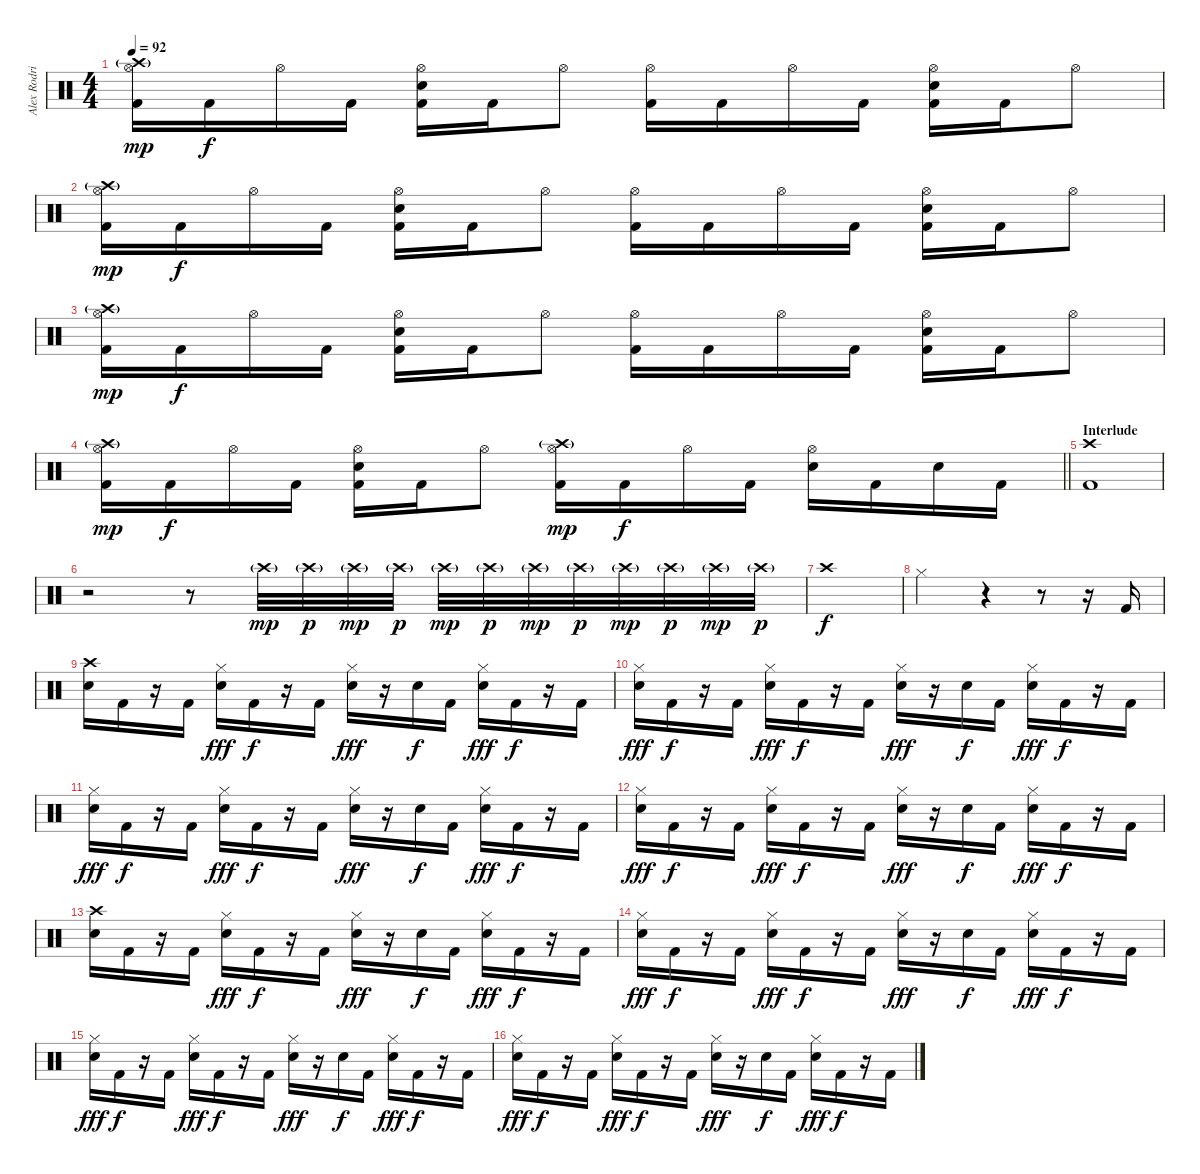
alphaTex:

\track ("Alex Rodriguez" "Alex Rodri") {instrument percussion}
\staff {score}
\articulation defaults
\ts (4 4)
\tempo 92
\clef neutral
\ks c
("Crash high (hit)"{g} "Hi-Hat (open)" "Kick (hit) 2").16{dy mp} "Kick (hit) 2".16{dy f} "Hi-Hat (open)".16 "Kick (hit) 2".16 ("Hi-Hat (open)" "Electric Snare (hit)" "Kick (hit) 2").16 "Kick (hit) 2".16 "Hi-Hat (open)".8 ("Hi-Hat (open)" "Kick (hit) 2").16 "Kick (hit) 2".16 "Hi-Hat (open)".16 "Kick (hit) 2".16 ("Hi-Hat (open)" "Electric Snare (hit)" "Kick (hit) 2").16 "Kick (hit) 2".16 "Hi-Hat (open)".8 |
("Crash high (hit)"{g} "Hi-Hat (open)" "Kick (hit) 2").16{dy mp} "Kick (hit) 2".16{dy f} "Hi-Hat (open)".16 "Kick (hit) 2".16 ("Hi-Hat (open)" "Electric Snare (hit)" "Kick (hit) 2").16 "Kick (hit) 2".16 "Hi-Hat (open)".8 ("Hi-Hat (open)" "Kick (hit) 2").16 "Kick (hit) 2".16 "Hi-Hat (open)".16 "Kick (hit) 2".16 ("Hi-Hat (open)" "Electric Snare (hit)" "Kick (hit) 2").16 "Kick (hit) 2".16 "Hi-Hat (open)".8 |
("Crash high (hit)"{g} "Hi-Hat (open)" "Kick (hit) 2").16{dy mp} "Kick (hit) 2".16{dy f} "Hi-Hat (open)".16 "Kick (hit) 2".16 ("Hi-Hat (open)" "Electric Snare (hit)" "Kick (hit) 2").16 "Kick (hit) 2".16 "Hi-Hat (open)".8 ("Hi-Hat (open)" "Kick (hit) 2").16 "Kick (hit) 2".16 "Hi-Hat (open)".16 "Kick (hit) 2".16 ("Hi-Hat (open)" "Electric Snare (hit)" "Kick (hit) 2").16 "Kick (hit) 2".16 "Hi-Hat (open)".8 |
\barLineRight lightlight
("Crash high (hit)"{g} "Hi-Hat (open)" "Kick (hit) 2").16{dy mp} "Kick (hit) 2".16{dy f} "Hi-Hat (open)".16 "Kick (hit) 2".16 ("Hi-Hat (open)" "Electric Snare (hit)" "Kick (hit) 2").16 "Kick (hit) 2".16 "Hi-Hat (open)".8 ("Crash high (hit)"{g} "Hi-Hat (open)" "Kick (hit) 2").16{dy mp} "Kick (hit) 2".16{dy f} "Hi-Hat (open)".16 "Kick (hit) 2".16 ("Hi-Hat (open)" "Electric Snare (hit)").16 "Kick (hit) 2".16 "Electric Snare (hit)".16 "Kick (hit) 2".16 |
\section ("" "Interlude")
("Crash high (hit)" "Kick (hit) 2").1 |
r.2 r.8 "Crash high (hit)"{g}.32{dy mp} "Crash high (hit)"{g}.32{dy p} "Crash high (hit)"{g}.32{dy mp} "Crash high (hit)"{g}.32{dy p} "Crash high (hit)"{g}.32{dy mp} "Crash high (hit)"{g}.32{dy p} "Crash high (hit)"{g}.32{dy mp} "Crash high (hit)"{g}.32{dy p} "Crash high (hit)"{g}.32{dy mp} "Crash high (hit)"{g}.32{dy p} "Crash high (hit)"{g}.32{dy mp} "Crash high (hit)"{g}.32{dy p} |
"Crash high (hit)".1{dy f} |
"Hi-Hat (closed)".2 r.4 r.8 r.16 "Kick (hit) 2".16 |
("Crash high (hit)" "Electric Snare (hit)").16 "Kick (hit) 2".16 r.16 "Kick (hit) 2".16 ("Hi-Hat (closed)" "Electric Snare (hit)").16{dy fff} "Kick (hit) 2".16{dy f} r.16 "Kick (hit) 2".16 ("Hi-Hat (closed)" "Electric Snare (hit)").16{dy fff} r.16 "Electric Snare (hit)".16{dy f} "Kick (hit) 2".16 ("Hi-Hat (closed)" "Electric Snare (hit)").16{dy fff} "Kick (hit) 2".16{dy f} r.16 "Kick (hit) 2".16 |
("Hi-Hat (closed)" "Electric Snare (hit)").16{dy fff} "Kick (hit) 2".16{dy f} r.16 "Kick (hit) 2".16 ("Hi-Hat (closed)" "Electric Snare (hit)").16{dy fff} "Kick (hit) 2".16{dy f} r.16 "Kick (hit) 2".16 ("Hi-Hat (closed)" "Electric Snare (hit)").16{dy fff} r.16 "Electric Snare (hit)".16{dy f} "Kick (hit) 2".16 ("Hi-Hat (closed)" "Electric Snare (hit)").16{dy fff} "Kick (hit) 2".16{dy f} r.16 "Kick (hit) 2".16 |
("Hi-Hat (closed)" "Electric Snare (hit)").16{dy fff} "Kick (hit) 2".16{dy f} r.16 "Kick (hit) 2".16 ("Hi-Hat (closed)" "Electric Snare (hit)").16{dy fff} "Kick (hit) 2".16{dy f} r.16 "Kick (hit) 2".16 ("Hi-Hat (closed)" "Electric Snare (hit)").16{dy fff} r.16 "Electric Snare (hit)".16{dy f} "Kick (hit) 2".16 ("Hi-Hat (closed)" "Electric Snare (hit)").16{dy fff} "Kick (hit) 2".16{dy f} r.16 "Kick (hit) 2".16 |
("Hi-Hat (closed)" "Electric Snare (hit)").16{dy fff} "Kick (hit) 2".16{dy f} r.16 "Kick (hit) 2".16 ("Hi-Hat (closed)" "Electric Snare (hit)").16{dy fff} "Kick (hit) 2".16{dy f} r.16 "Kick (hit) 2".16 ("Hi-Hat (closed)" "Electric Snare (hit)").16{dy fff} r.16 "Electric Snare (hit)".16{dy f} "Kick (hit) 2".16 ("Hi-Hat (closed)" "Electric Snare (hit)").16{dy fff} "Kick (hit) 2".16{dy f} r.16 "Kick (hit) 2".16 |
("Crash high (hit)" "Electric Snare (hit)").16 "Kick (hit) 2".16 r.16 "Kick (hit) 2".16 ("Hi-Hat (closed)" "Electric Snare (hit)").16{dy fff} "Kick (hit) 2".16{dy f} r.16 "Kick (hit) 2".16 ("Hi-Hat (closed)" "Electric Snare (hit)").16{dy fff} r.16 "Electric Snare (hit)".16{dy f} "Kick (hit) 2".16 ("Hi-Hat (closed)" "Electric Snare (hit)").16{dy fff} "Kick (hit) 2".16{dy f} r.16 "Kick (hit) 2".16 |
("Hi-Hat (closed)" "Electric Snare (hit)").16{dy fff} "Kick (hit) 2".16{dy f} r.16 "Kick (hit) 2".16 ("Hi-Hat (closed)" "Electric Snare (hit)").16{dy fff} "Kick (hit) 2".16{dy f} r.16 "Kick (hit) 2".16 ("Hi-Hat (closed)" "Electric Snare (hit)").16{dy fff} r.16 "Electric Snare (hit)".16{dy f} "Kick (hit) 2".16 ("Hi-Hat (closed)" "Electric Snare (hit)").16{dy fff} "Kick (hit) 2".16{dy f} r.16 "Kick (hit) 2".16 |
("Hi-Hat (closed)" "Electric Snare (hit)").16{dy fff} "Kick (hit) 2".16{dy f} r.16 "Kick (hit) 2".16 ("Hi-Hat (closed)" "Electric Snare (hit)").16{dy fff} "Kick (hit) 2".16{dy f} r.16 "Kick (hit) 2".16 ("Hi-Hat (closed)" "Electric Snare (hit)").16{dy fff} r.16 "Electric Snare (hit)".16{dy f} "Kick (hit) 2".16 ("Hi-Hat (closed)" "Electric Snare (hit)").16{dy fff} "Kick (hit) 2".16{dy f} r.16 "Kick (hit) 2".16 |
("Hi-Hat (closed)" "Electric Snare (hit)").16{dy fff} "Kick (hit) 2".16{dy f} r.16 "Kick (hit) 2".16 ("Hi-Hat (closed)" "Electric Snare (hit)").16{dy fff} "Kick (hit) 2".16{dy f} r.16 "Kick (hit) 2".16 ("Hi-Hat (closed)" "Electric Snare (hit)").16{dy fff} r.16 "Electric Snare (hit)".16{dy f} "Kick (hit) 2".16 ("Hi-Hat (closed)" "Electric Snare (hit)").16{dy fff} "Kick (hit) 2".16{dy f} r.16 "Kick (hit) 2".16
